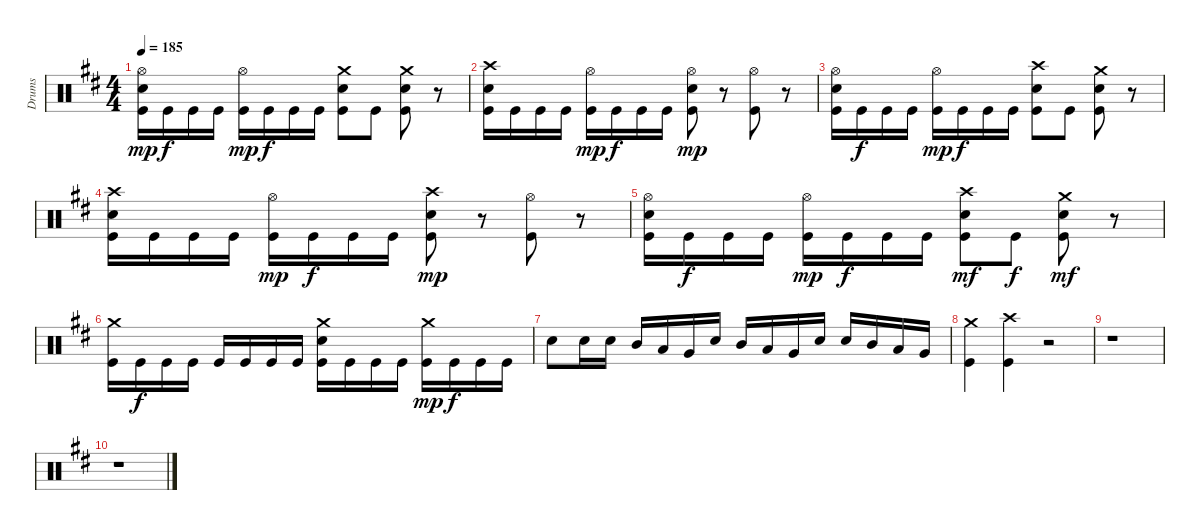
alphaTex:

\track ("Drums" "Drums") {instrument percussion}
\staff {score}
\articulation defaults
\ts (4 4)
\tempo 185
\clef neutral
\ks bminor
("Hi-Hat (open)" "Snare (hit) 2" "Kick (hit)").16{dy mp} "Kick (hit)".16{dy f} "Kick (hit)".16 "Kick (hit)".16 ("Hi-Hat (open)" "Kick (hit)").16{dy mp} "Kick (hit)".16{dy f} "Kick (hit)".16 "Kick (hit)".16 ("Crash medium (hit)" "Snare (hit) 2" "Kick (hit)").8 "Kick (hit)".8 ("Crash medium (hit)" "Snare (hit) 2" "Kick (hit)").8 r.8 |
("Crash high (hit)" "Snare (hit) 2" "Kick (hit)").16 "Kick (hit)".16 "Kick (hit)".16 "Kick (hit)".16 ("Hi-Hat (open)" "Kick (hit)").16{dy mp} "Kick (hit)".16{dy f} "Kick (hit)".16 "Kick (hit)".16 ("Hi-Hat (open)" "Snare (hit) 2" "Kick (hit)").8{dy mp} r.8 ("Hi-Hat (open)" "Kick (hit)").8 r.8 |
("Hi-Hat (open)" "Snare (hit) 2" "Kick (hit)").16 "Kick (hit)".16{dy f} "Kick (hit)".16 "Kick (hit)".16 ("Hi-Hat (open)" "Kick (hit)").16{dy mp} "Kick (hit)".16{dy f} "Kick (hit)".16 "Kick (hit)".16 ("Crash high (hit)" "Snare (hit) 2" "Kick (hit)").8 "Kick (hit)".8 ("Crash medium (hit)" "Snare (hit) 2" "Kick (hit)").8 r.8 |
("Crash high (hit)" "Snare (hit) 2" "Kick (hit)").16 "Kick (hit)".16 "Kick (hit)".16 "Kick (hit)".16 ("Hi-Hat (open)" "Kick (hit)").16{dy mp} "Kick (hit)".16{dy f} "Kick (hit)".16 "Kick (hit)".16 ("Crash high (hit)" "Snare (hit) 2" "Kick (hit)").8{dy mp} r.8 ("Hi-Hat (open)" "Kick (hit)").8 r.8 |
("Hi-Hat (open)" "Snare (hit) 2" "Kick (hit)").16 "Kick (hit)".16{dy f} "Kick (hit)".16 "Kick (hit)".16 ("Hi-Hat (open)" "Kick (hit)").16{dy mp} "Kick (hit)".16{dy f} "Kick (hit)".16 "Kick (hit)".16 ("Crash high (hit)" "Snare (hit) 2" "Kick (hit)").8{dy mf} "Kick (hit)".8{dy f} ("Crash medium (hit)" "Snare (hit) 2" "Kick (hit)").8{dy mf} r.8 |
("Crash medium (hit)" "Kick (hit)").16 "Kick (hit)".16{dy f} "Kick (hit)".16 "Kick (hit)".16 "Kick (hit)".16 "Kick (hit)".16 "Kick (hit)".16 "Kick (hit)".16 ("Crash medium (hit)" "Snare (hit) 2" "Kick (hit)").16 "Kick (hit)".16 "Kick (hit)".16 "Kick (hit)".16 ("Crash medium (hit)" "Kick (hit)").16{dy mp} "Kick (hit)".16{dy f} "Kick (hit)".16 "Kick (hit)".16 |
"Snare (hit) 2".8 "Snare (hit) 2".16 "Snare (hit) 2".16 "Mid Tom (hit)".16 "Low Tom (hit)".16 "Very Low Tom (hit)".16 "Snare (hit) 2".16 "Mid Tom (hit)".16 "Low Tom (hit)".16 "Very Low Tom (hit)".16 "Snare (hit) 2".16 "Snare (hit) 2".16 "Mid Tom (hit)".16 "Low Tom (hit)".16 "Very Low Tom (hit)".16 |
("Crash medium (hit)" "Kick (hit)").4 ("Crash high (hit)" "Kick (hit)").4 r.2 |
r.1 |
r.1
